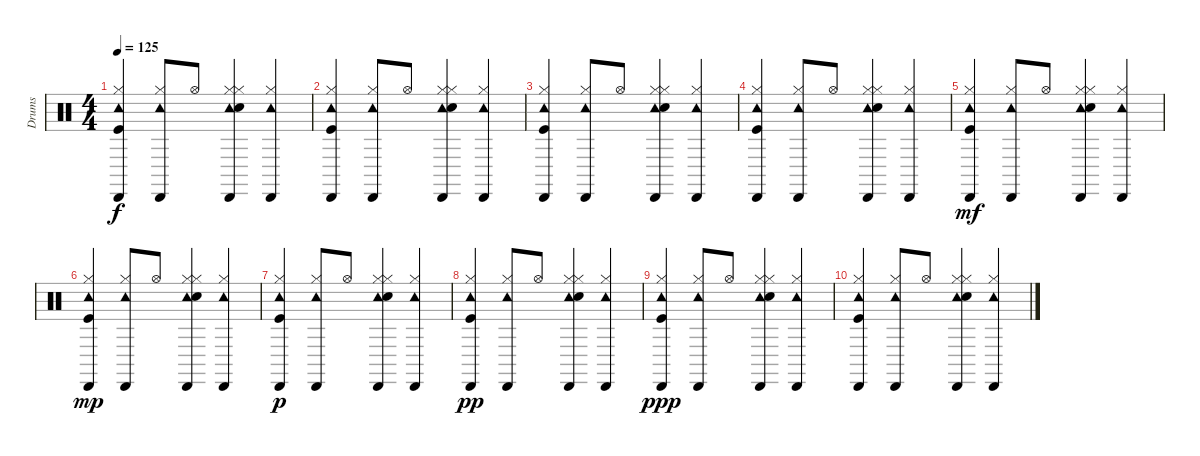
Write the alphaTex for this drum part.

\track ("Drums" "Drums") {instrument percussion}
\staff {score}
\articulation defaults
\ts (4 4)
\tempo 125
\clef neutral
\ks c
("Cabasa (hit)" "Tambourine (hit)" "Hi-Hat (closed)" "Kick (hit)").4{dy f} ("Cabasa (hit)" "Tambourine (hit)" "Hi-Hat (closed)").8 "Hi-Hat (open)".8 ("Cabasa (hit)" "Tambourine (hit)" "Hi-Hat (closed)" "Hi-Hat (closed)" "Snare (hit) 2").4 ("Tambourine (hit)" "Cabasa (hit)" "Hi-Hat (closed)").4 |
("Cabasa (hit)" "Tambourine (hit)" "Hi-Hat (closed)" "Kick (hit)").4 ("Cabasa (hit)" "Tambourine (hit)" "Hi-Hat (closed)").8 "Hi-Hat (open)".8 ("Cabasa (hit)" "Tambourine (hit)" "Hi-Hat (closed)" "Hi-Hat (closed)" "Snare (hit) 2").4 ("Tambourine (hit)" "Cabasa (hit)" "Hi-Hat (closed)").4 |
("Cabasa (hit)" "Tambourine (hit)" "Hi-Hat (closed)" "Kick (hit)").4 ("Cabasa (hit)" "Tambourine (hit)" "Hi-Hat (closed)").8 "Hi-Hat (open)".8 ("Cabasa (hit)" "Tambourine (hit)" "Hi-Hat (closed)" "Hi-Hat (closed)" "Snare (hit) 2").4 ("Tambourine (hit)" "Cabasa (hit)" "Hi-Hat (closed)").4 |
("Cabasa (hit)" "Tambourine (hit)" "Hi-Hat (closed)" "Kick (hit)").4 ("Cabasa (hit)" "Tambourine (hit)" "Hi-Hat (closed)").8 "Hi-Hat (open)".8 ("Cabasa (hit)" "Tambourine (hit)" "Hi-Hat (closed)" "Hi-Hat (closed)" "Snare (hit) 2").4 ("Tambourine (hit)" "Cabasa (hit)" "Hi-Hat (closed)").4 |
("Cabasa (hit)" "Tambourine (hit)" "Hi-Hat (closed)" "Kick (hit)").4{dy mf} ("Cabasa (hit)" "Tambourine (hit)" "Hi-Hat (closed)").8 "Hi-Hat (open)".8 ("Cabasa (hit)" "Tambourine (hit)" "Hi-Hat (closed)" "Hi-Hat (closed)" "Snare (hit) 2").4 ("Tambourine (hit)" "Cabasa (hit)" "Hi-Hat (closed)").4 |
("Cabasa (hit)" "Tambourine (hit)" "Hi-Hat (closed)" "Kick (hit)").4{dy mp} ("Cabasa (hit)" "Tambourine (hit)" "Hi-Hat (closed)").8 "Hi-Hat (open)".8 ("Cabasa (hit)" "Tambourine (hit)" "Hi-Hat (closed)" "Hi-Hat (closed)" "Snare (hit) 2").4 ("Tambourine (hit)" "Cabasa (hit)" "Hi-Hat (closed)").4 |
("Cabasa (hit)" "Tambourine (hit)" "Hi-Hat (closed)" "Kick (hit)").4{dy p} ("Cabasa (hit)" "Tambourine (hit)" "Hi-Hat (closed)").8 "Hi-Hat (open)".8 ("Cabasa (hit)" "Tambourine (hit)" "Hi-Hat (closed)" "Hi-Hat (closed)" "Snare (hit) 2").4 ("Tambourine (hit)" "Cabasa (hit)" "Hi-Hat (closed)").4 |
("Cabasa (hit)" "Tambourine (hit)" "Hi-Hat (closed)" "Kick (hit)").4{dy pp} ("Cabasa (hit)" "Tambourine (hit)" "Hi-Hat (closed)").8 "Hi-Hat (open)".8 ("Cabasa (hit)" "Tambourine (hit)" "Hi-Hat (closed)" "Hi-Hat (closed)" "Snare (hit) 2").4 ("Tambourine (hit)" "Cabasa (hit)" "Hi-Hat (closed)").4 |
("Cabasa (hit)" "Tambourine (hit)" "Hi-Hat (closed)" "Kick (hit)").4{dy ppp} ("Cabasa (hit)" "Tambourine (hit)" "Hi-Hat (closed)").8 "Hi-Hat (open)".8 ("Cabasa (hit)" "Tambourine (hit)" "Hi-Hat (closed)" "Hi-Hat (closed)" "Snare (hit) 2").4 ("Tambourine (hit)" "Cabasa (hit)" "Hi-Hat (closed)").4 |
("Cabasa (hit)" "Tambourine (hit)" "Hi-Hat (closed)" "Kick (hit)").4 ("Cabasa (hit)" "Tambourine (hit)" "Hi-Hat (closed)").8 "Hi-Hat (open)".8 ("Cabasa (hit)" "Tambourine (hit)" "Hi-Hat (closed)" "Hi-Hat (closed)" "Snare (hit) 2").4 ("Tambourine (hit)" "Cabasa (hit)" "Hi-Hat (closed)").4
